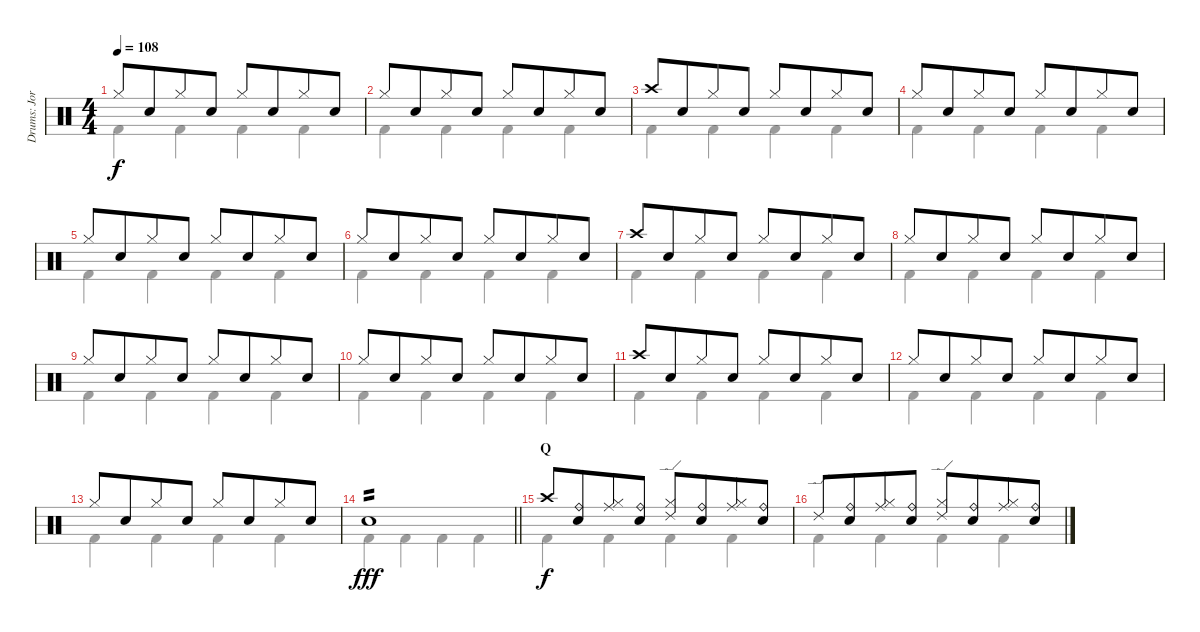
\track ("Drums: Jorg" "Drums: Jor") {instrument percussion}
\staff {score}
\articulation defaults
\voice
\ts (4 4)
\tempo 108
\clef neutral
\ks c "Hi-Hat (closed)".8{dy f} "Snare (hit) 2".8{beam merge} "Hi-Hat (closed)".8 "Snare (hit) 2".8 "Hi-Hat (closed)".8 "Snare (hit) 2".8{beam merge} "Hi-Hat (closed)".8 "Snare (hit) 2".8
|
"Hi-Hat (closed)".8 "Snare (hit) 2".8{beam merge} "Hi-Hat (closed)".8 "Snare (hit) 2".8 "Hi-Hat (closed)".8 "Snare (hit) 2".8{beam merge} "Hi-Hat (closed)".8 "Snare (hit) 2".8 |
"Crash high (hit)".8 "Snare (hit) 2".8{beam merge} "Hi-Hat (closed)".8 "Snare (hit) 2".8 "Hi-Hat (closed)".8 "Snare (hit) 2".8{beam merge} "Hi-Hat (closed)".8 "Snare (hit) 2".8 |
"Hi-Hat (closed)".8 "Snare (hit) 2".8{beam merge} "Hi-Hat (closed)".8 "Snare (hit) 2".8 "Hi-Hat (closed)".8 "Snare (hit) 2".8{beam merge} "Hi-Hat (closed)".8 "Snare (hit) 2".8 |
"Hi-Hat (closed)".8 "Snare (hit) 2".8{beam merge} "Hi-Hat (closed)".8 "Snare (hit) 2".8 "Hi-Hat (closed)".8 "Snare (hit) 2".8{beam merge} "Hi-Hat (closed)".8 "Snare (hit) 2".8 |
"Hi-Hat (closed)".8 "Snare (hit) 2".8{beam merge} "Hi-Hat (closed)".8 "Snare (hit) 2".8 "Hi-Hat (closed)".8 "Snare (hit) 2".8{beam merge} "Hi-Hat (closed)".8 "Snare (hit) 2".8 |
"Crash high (hit)".8 "Snare (hit) 2".8{beam merge} "Hi-Hat (closed)".8 "Snare (hit) 2".8 "Hi-Hat (closed)".8 "Snare (hit) 2".8{beam merge} "Hi-Hat (closed)".8 "Snare (hit) 2".8 |
"Hi-Hat (closed)".8 "Snare (hit) 2".8{beam merge} "Hi-Hat (closed)".8 "Snare (hit) 2".8 "Hi-Hat (closed)".8 "Snare (hit) 2".8{beam merge} "Hi-Hat (closed)".8 "Snare (hit) 2".8 |
"Hi-Hat (closed)".8 "Snare (hit) 2".8{beam merge} "Hi-Hat (closed)".8 "Snare (hit) 2".8 "Hi-Hat (closed)".8 "Snare (hit) 2".8{beam merge} "Hi-Hat (closed)".8 "Snare (hit) 2".8 |
"Hi-Hat (closed)".8 "Snare (hit) 2".8{beam merge} "Hi-Hat (closed)".8 "Snare (hit) 2".8 "Hi-Hat (closed)".8 "Snare (hit) 2".8{beam merge} "Hi-Hat (closed)".8 "Snare (hit) 2".8 |
"Crash high (hit)".8 "Snare (hit) 2".8{beam merge} "Hi-Hat (closed)".8 "Snare (hit) 2".8 "Hi-Hat (closed)".8 "Snare (hit) 2".8{beam merge} "Hi-Hat (closed)".8 "Snare (hit) 2".8 |
"Hi-Hat (closed)".8 "Snare (hit) 2".8{beam merge} "Hi-Hat (closed)".8 "Snare (hit) 2".8 "Hi-Hat (closed)".8 "Snare (hit) 2".8{beam merge} "Hi-Hat (closed)".8 "Snare (hit) 2".8 |
"Hi-Hat (closed)".8 "Snare (hit) 2".8{beam merge} "Hi-Hat (closed)".8 "Snare (hit) 2".8 "Hi-Hat (closed)".8 "Snare (hit) 2".8{beam merge} "Hi-Hat (closed)".8 "Snare (hit) 2".8 |
\barLineRight lightlight "Snare (hit) 2".1{tp 2 dy fff}
|
\section ("" "Q")
"Crash high (hit)".8{dy f} ("Ride (bell)" "Snare (hit) 2").8{beam merge} ("Ride (middle)" "Hi-Hat (closed)").8 ("Ride (bell)" "Snare (hit) 2").8 ("Ride (edge) 2" "Hi-Hat (closed)").8 ("Ride (bell)" "Snare (hit) 2").8{beam merge} ("Ride (middle)" "Hi-Hat (closed)").8 ("Ride (bell)" "Snare (hit) 2").8 |
"Ride (edge) 2".8 ("Ride (bell)" "Snare (hit) 2").8{beam merge} ("Ride (middle)" "Hi-Hat (closed)").8 ("Ride (bell)" "Snare (hit) 2").8 ("Ride (edge) 2" "Hi-Hat (closed)").8 ("Ride (bell)" "Snare (hit) 2").8{beam merge} ("Ride (middle)" "Hi-Hat (closed)").8 ("Ride (bell)" "Snare (hit) 2").8
\voice
\clef neutral
\ottava regular
\simile none
\ks c "Kick (hit) 2".4{dy f} "Kick (hit) 2".4 "Kick (hit) 2".4 "Kick (hit) 2".4
|
"Kick (hit) 2".4 "Kick (hit) 2".4 "Kick (hit) 2".4 "Kick (hit) 2".4 |
"Kick (hit) 2".4 "Kick (hit) 2".4 "Kick (hit) 2".4 "Kick (hit) 2".4 |
"Kick (hit) 2".4 "Kick (hit) 2".4 "Kick (hit) 2".4 "Kick (hit) 2".4 |
"Kick (hit) 2".4 "Kick (hit) 2".4 "Kick (hit) 2".4 "Kick (hit) 2".4 |
"Kick (hit) 2".4 "Kick (hit) 2".4 "Kick (hit) 2".4 "Kick (hit) 2".4 |
"Kick (hit) 2".4 "Kick (hit) 2".4 "Kick (hit) 2".4 "Kick (hit) 2".4 |
"Kick (hit) 2".4 "Kick (hit) 2".4 "Kick (hit) 2".4 "Kick (hit) 2".4 |
"Kick (hit) 2".4 "Kick (hit) 2".4 "Kick (hit) 2".4 "Kick (hit) 2".4 |
"Kick (hit) 2".4 "Kick (hit) 2".4 "Kick (hit) 2".4 "Kick (hit) 2".4 |
"Kick (hit) 2".4 "Kick (hit) 2".4 "Kick (hit) 2".4 "Kick (hit) 2".4 |
"Kick (hit) 2".4 "Kick (hit) 2".4 "Kick (hit) 2".4 "Kick (hit) 2".4 |
"Kick (hit) 2".4 "Kick (hit) 2".4 "Kick (hit) 2".4 "Kick (hit) 2".4 |
\barLineRight lightlight "Kick (hit) 2".4 "Kick (hit) 2".4 "Kick (hit) 2".4 "Kick (hit) 2".4
|
"Kick (hit) 2".4 "Kick (hit) 2".4 "Kick (hit) 2".4 "Kick (hit) 2".4 |
"Kick (hit) 2".4 "Kick (hit) 2".4 "Kick (hit) 2".4 "Kick (hit) 2".4
